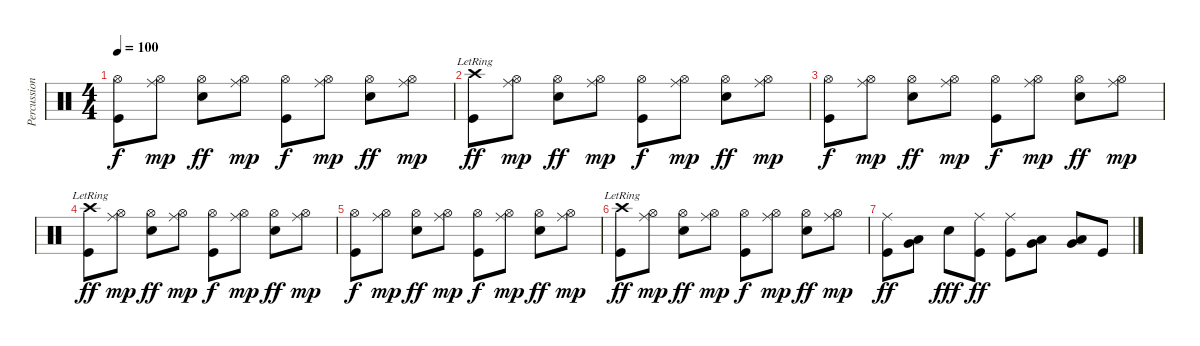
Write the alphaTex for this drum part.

\track ("Percussion" "Percussion") {instrument percussion}
\staff {score}
\articulation defaults
\ts (4 4)
\tempo 100
\clef neutral
\ks c
("Hi-Hat (open)" "Kick (hit)").8{dy f volume 9} ("Ride (middle)" "Hi-Hat (open)").8{dy mp} ("Hi-Hat (open)" "Electric Snare (hit)").8{dy ff} ("Ride (middle)" "Hi-Hat (open)").8{dy mp} ("Hi-Hat (open)" "Kick (hit)").8{dy f} ("Ride (middle)" "Hi-Hat (open)").8{dy mp} ("Hi-Hat (open)" "Electric Snare (hit)").8{dy ff} ("Ride (middle)" "Hi-Hat (open)").8{dy mp} |
("Crash high (hit)"{lr} "Kick (hit)").8{dy ff volume 6} ("Ride (middle)" "Hi-Hat (open)").8{dy mp} ("Hi-Hat (open)" "Electric Snare (hit)").8{dy ff} ("Ride (middle)" "Hi-Hat (open)").8{dy mp} ("Hi-Hat (open)" "Kick (hit)").8{dy f} ("Ride (middle)" "Hi-Hat (open)").8{dy mp} ("Hi-Hat (open)" "Electric Snare (hit)").8{dy ff} ("Ride (middle)" "Hi-Hat (open)").8{dy mp} |
("Hi-Hat (open)" "Kick (hit)").8{dy f volume 3} ("Ride (middle)" "Hi-Hat (open)").8{dy mp} ("Hi-Hat (open)" "Electric Snare (hit)").8{dy ff} ("Ride (middle)" "Hi-Hat (open)").8{dy mp} ("Hi-Hat (open)" "Kick (hit)").8{dy f} ("Ride (middle)" "Hi-Hat (open)").8{dy mp} ("Hi-Hat (open)" "Electric Snare (hit)").8{dy ff} ("Ride (middle)" "Hi-Hat (open)").8{dy mp} |
("Crash high (hit)"{lr} "Kick (hit)").8{dy ff} ("Ride (middle)" "Hi-Hat (open)").8{dy mp} ("Hi-Hat (open)" "Electric Snare (hit)").8{dy ff} ("Ride (middle)" "Hi-Hat (open)").8{dy mp} ("Hi-Hat (open)" "Kick (hit)").8{dy f} ("Ride (middle)" "Hi-Hat (open)").8{dy mp} ("Hi-Hat (open)" "Electric Snare (hit)").8{dy ff} ("Ride (middle)" "Hi-Hat (open)").8{dy mp} |
("Hi-Hat (open)" "Kick (hit)").8{dy f} ("Ride (middle)" "Hi-Hat (open)").8{dy mp} ("Hi-Hat (open)" "Electric Snare (hit)").8{dy ff} ("Ride (middle)" "Hi-Hat (open)").8{dy mp} ("Hi-Hat (open)" "Kick (hit)").8{dy f} ("Ride (middle)" "Hi-Hat (open)").8{dy mp} ("Hi-Hat (open)" "Electric Snare (hit)").8{dy ff} ("Ride (middle)" "Hi-Hat (open)").8{dy mp} |
("Crash high (hit)"{lr} "Kick (hit)").8{dy ff} ("Ride (middle)" "Hi-Hat (open)").8{dy mp} ("Hi-Hat (open)" "Electric Snare (hit)").8{dy ff} ("Ride (middle)" "Hi-Hat (open)").8{dy mp} ("Hi-Hat (open)" "Kick (hit)").8{dy f} ("Ride (middle)" "Hi-Hat (open)").8{dy mp} ("Hi-Hat (open)" "Electric Snare (hit)").8{dy ff} ("Ride (middle)" "Hi-Hat (open)").8{dy mp} |
("Ride (middle)" "Kick (hit)").8{dy ff} ("Low Tom (hit)" "Very Low Tom (hit)").8 "Electric Snare (hit)".8{dy fff} ("Ride (middle)" "Kick (hit)").8{dy ff} ("Ride (middle)" "Kick (hit)").8 ("Very Low Tom (hit)" "Low Floor Tom (hit)").8 ("Very Low Tom (hit)" "Low Floor Tom (hit)").8 "Kick (hit)".8
